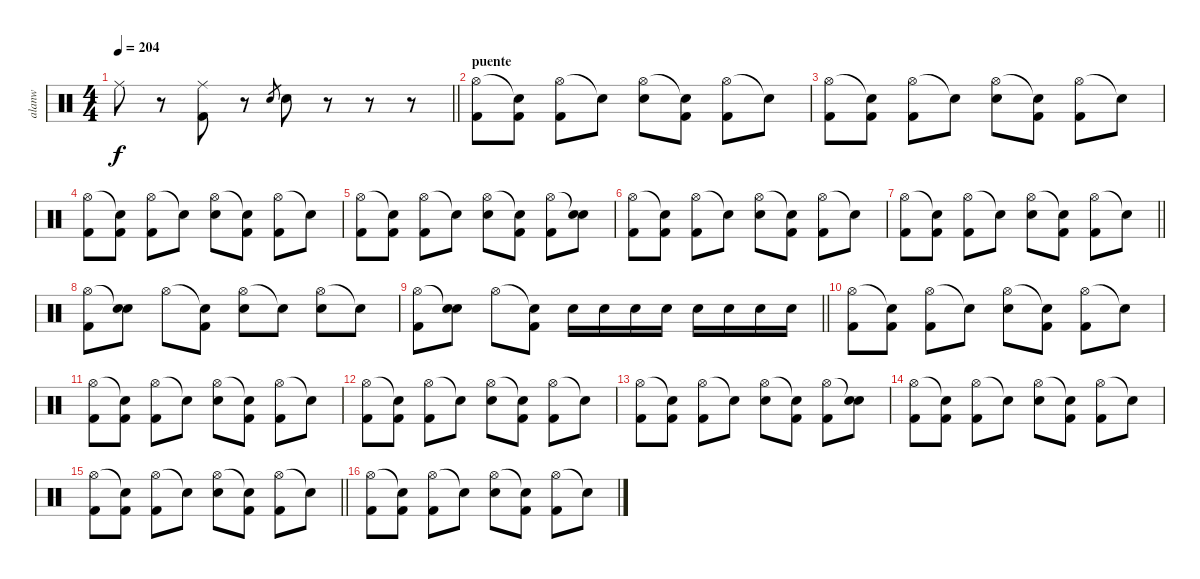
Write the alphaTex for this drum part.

\track ("alanw" "alanw") {instrument percussion}
\staff {score}
\articulation defaults
\ts (4 4)
\tempo 204
\clef neutral
\barLineRight lightlight
\ks c "Ride (middle)".8{dy f}
r.8 ("Ride (middle)" "Kick (hit) 2").8 r.8 "Electric Snare (hit)".8{gr} "Electric Snare (hit)".8 r.8 r.8 r.8 |
\section ("" "puente")
("Hi-Hat (open)" "Kick (hit) 2").8 ("Snare (hit)"{t} "Kick (hit) 2").8 ("Hi-Hat (open)" "Kick (hit) 2").8 "Snare (hit)"{t}.8 ("Hi-Hat (open)" "Electric Snare (hit)").8 ("Snare (hit)"{t} "Kick (hit) 2").8 ("Hi-Hat (open)" "Kick (hit) 2").8 "Snare (hit)"{t}.8 |
("Hi-Hat (open)" "Kick (hit) 2").8 ("Snare (hit)"{t} "Kick (hit) 2").8 ("Hi-Hat (open)" "Kick (hit) 2").8 "Snare (hit)"{t}.8 ("Hi-Hat (open)" "Electric Snare (hit)").8 ("Snare (hit)"{t} "Kick (hit) 2").8 ("Hi-Hat (open)" "Kick (hit) 2").8 "Snare (hit)"{t}.8 |
("Hi-Hat (open)" "Kick (hit) 2").8 ("Snare (hit)"{t} "Kick (hit) 2").8 ("Hi-Hat (open)" "Kick (hit) 2").8 "Snare (hit)"{t}.8 ("Hi-Hat (open)" "Electric Snare (hit)").8 ("Snare (hit)"{t} "Kick (hit) 2").8 ("Hi-Hat (open)" "Kick (hit) 2").8 "Snare (hit)"{t}.8 |
("Hi-Hat (open)" "Kick (hit) 2").8 ("Snare (hit)"{t} "Kick (hit) 2").8 ("Hi-Hat (open)" "Kick (hit) 2").8 "Snare (hit)"{t}.8 ("Hi-Hat (open)" "Electric Snare (hit)").8 ("Snare (hit)"{t} "Kick (hit) 2").8 ("Hi-Hat (open)" "Kick (hit) 2").8 ("Snare (hit)"{t} "Electric Snare (hit)").8 |
("Hi-Hat (open)" "Kick (hit) 2").8 ("Snare (hit)"{t} "Kick (hit) 2").8 ("Hi-Hat (open)" "Kick (hit) 2").8 "Snare (hit)"{t}.8 ("Hi-Hat (open)" "Electric Snare (hit)").8 ("Snare (hit)"{t} "Kick (hit) 2").8 ("Hi-Hat (open)" "Kick (hit) 2").8 "Snare (hit)"{t}.8 |
\barLineRight lightlight
("Hi-Hat (open)" "Kick (hit) 2").8 ("Snare (hit)"{t} "Kick (hit) 2").8 ("Hi-Hat (open)" "Kick (hit) 2").8 "Snare (hit)"{t}.8 ("Hi-Hat (open)" "Electric Snare (hit)").8 ("Snare (hit)"{t} "Kick (hit) 2").8 ("Hi-Hat (open)" "Kick (hit) 2").8 "Snare (hit)"{t}.8 |
("Hi-Hat (open)" "Kick (hit) 2").8 ("Snare (hit)"{t} "Electric Snare (hit)").8 "Hi-Hat (open)".8 ("Snare (hit)"{t} "Kick (hit) 2").8 ("Hi-Hat (open)" "Electric Snare (hit)").8 "Snare (hit)"{t}.8 ("Hi-Hat (open)" "Electric Snare (hit)").8 "Snare (hit)"{t}.8 |
\barLineRight lightlight
("Hi-Hat (open)" "Kick (hit) 2").8 ("Snare (hit)"{t} "Electric Snare (hit)").8 "Hi-Hat (open)".8 ("Snare (hit)"{t} "Kick (hit) 2").8 "Electric Snare (hit)".16 "Electric Snare (hit)".16 "Electric Snare (hit)".16 "Electric Snare (hit)".16 "Electric Snare (hit)".16 "Electric Snare (hit)".16 "Electric Snare (hit)".16 "Electric Snare (hit)".16 |
\section ("" "")
("Hi-Hat (open)" "Kick (hit) 2").8 ("Snare (hit)"{t} "Kick (hit) 2").8 ("Hi-Hat (open)" "Kick (hit) 2").8 "Snare (hit)"{t}.8 ("Hi-Hat (open)" "Electric Snare (hit)").8 ("Snare (hit)"{t} "Kick (hit) 2").8 ("Hi-Hat (open)" "Kick (hit) 2").8 "Snare (hit)"{t}.8 |
("Hi-Hat (open)" "Kick (hit) 2").8 ("Snare (hit)"{t} "Kick (hit) 2").8 ("Hi-Hat (open)" "Kick (hit) 2").8 "Snare (hit)"{t}.8 ("Hi-Hat (open)" "Electric Snare (hit)").8 ("Snare (hit)"{t} "Kick (hit) 2").8 ("Hi-Hat (open)" "Kick (hit) 2").8 "Snare (hit)"{t}.8 |
("Hi-Hat (open)" "Kick (hit) 2").8 ("Snare (hit)"{t} "Kick (hit) 2").8 ("Hi-Hat (open)" "Kick (hit) 2").8 "Snare (hit)"{t}.8 ("Hi-Hat (open)" "Electric Snare (hit)").8 ("Snare (hit)"{t} "Kick (hit) 2").8 ("Hi-Hat (open)" "Kick (hit) 2").8 "Snare (hit)"{t}.8 |
("Hi-Hat (open)" "Kick (hit) 2").8 ("Snare (hit)"{t} "Kick (hit) 2").8 ("Hi-Hat (open)" "Kick (hit) 2").8 "Snare (hit)"{t}.8 ("Hi-Hat (open)" "Electric Snare (hit)").8 ("Snare (hit)"{t} "Kick (hit) 2").8 ("Hi-Hat (open)" "Kick (hit) 2").8 ("Snare (hit)"{t} "Electric Snare (hit)").8 |
("Hi-Hat (open)" "Kick (hit) 2").8 ("Snare (hit)"{t} "Kick (hit) 2").8 ("Hi-Hat (open)" "Kick (hit) 2").8 "Snare (hit)"{t}.8 ("Hi-Hat (open)" "Electric Snare (hit)").8 ("Snare (hit)"{t} "Kick (hit) 2").8 ("Hi-Hat (open)" "Kick (hit) 2").8 "Snare (hit)"{t}.8 |
\barLineRight lightlight
("Hi-Hat (open)" "Kick (hit) 2").8 ("Snare (hit)"{t} "Kick (hit) 2").8 ("Hi-Hat (open)" "Kick (hit) 2").8 "Snare (hit)"{t}.8 ("Hi-Hat (open)" "Electric Snare (hit)").8 ("Snare (hit)"{t} "Kick (hit) 2").8 ("Hi-Hat (open)" "Kick (hit) 2").8 "Snare (hit)"{t}.8 |
("Hi-Hat (open)" "Kick (hit) 2").8 ("Snare (hit)"{t} "Kick (hit) 2").8 ("Hi-Hat (open)" "Kick (hit) 2").8 "Snare (hit)"{t}.8 ("Hi-Hat (open)" "Electric Snare (hit)").8 ("Snare (hit)"{t} "Kick (hit) 2").8 ("Hi-Hat (open)" "Kick (hit) 2").8 "Snare (hit)"{t}.8
